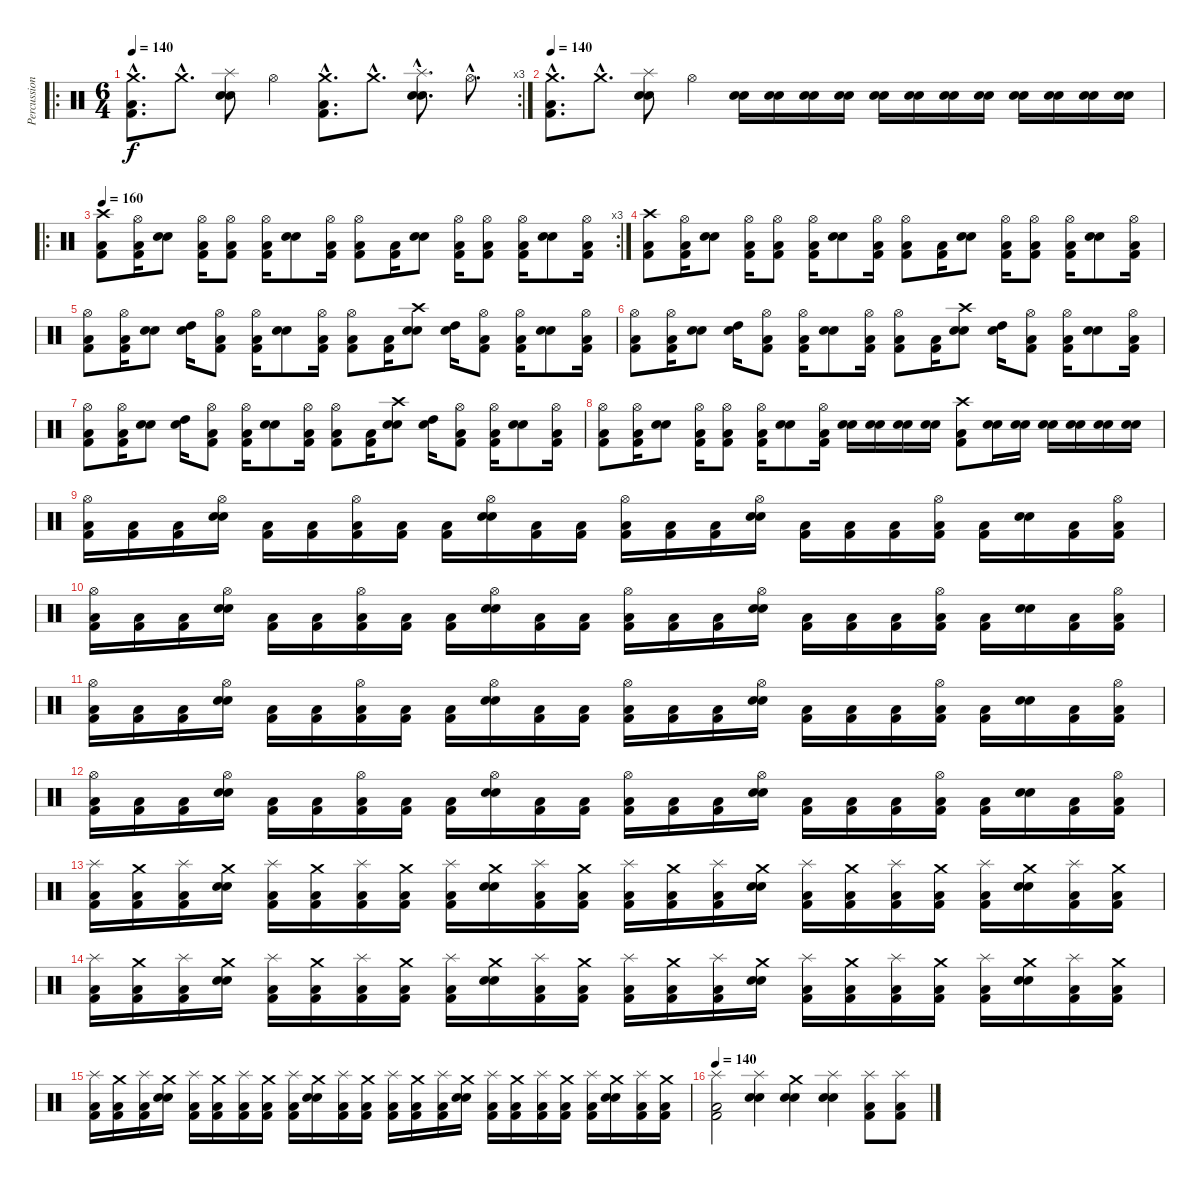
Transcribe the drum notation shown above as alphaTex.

\track ("Percussions" "Percussion") {instrument percussion}
\staff {score}
\articulation defaults
\ro
\rc 3
\ts (6 4)
\tempo 140
\clef neutral
\ks c
("Crash medium (hit)"{hac} "Kick (hit) 2"{hac} "Low Floor Tom (hit)"{hac}).8{d dy f} "Crash medium (hit)"{hac}.8{d} ("Splash (hit)" "Snare (hit) 2" "Electric Snare (hit)").8 "Hi-Hat (open)".4 ("Crash medium (hit)"{hac} "Kick (hit) 2"{hac} "Low Floor Tom (hit)"{hac}).8{d} "Crash medium (hit)"{hac}.8{d} ("Splash (hit)"{hac} "Snare (hit) 2"{hac} "Electric Snare (hit)"{hac}).8{d} "Hi-Hat (open)"{hac}.8{d} |
\tempo 140
("Crash medium (hit)"{hac} "Kick (hit) 2"{hac} "Low Floor Tom (hit)"{hac}).8{d} "Crash medium (hit)"{hac}.8{d} ("Splash (hit)" "Snare (hit) 2" "Electric Snare (hit)").8 "Hi-Hat (open)".4 ("Snare (hit) 2" "Snare (hit) 2").16 ("Snare (hit) 2" "Snare (hit) 2").16 ("Snare (hit) 2" "Snare (hit)").16 ("Snare (hit) 2" "Snare (hit) 2").16 ("Snare (hit) 2" "Snare (hit) 2").16 ("Snare (hit) 2" "Snare (hit) 2").16 ("Snare (hit) 2" "Snare (hit) 2").16 ("Snare (hit) 2" "Snare (hit) 2").16 ("Snare (hit) 2" "Snare (hit) 2").16 ("Snare (hit) 2" "Snare (hit) 2").16 ("Snare (hit) 2" "Snare (hit) 2").16 ("Snare (hit) 2" "Snare (hit) 2").16 |
\ro
\rc 3
\tempo 160
("Crash high (hit)" "Kick (hit) 2" "Low Floor Tom (hit)").8 ("Hi-Hat (open)" "Kick (hit) 2" "Low Floor Tom (hit)").16 ("Snare (hit) 2" "Electric Snare (hit)").8 ("Hi-Hat (open)" "Kick (hit) 2" "Low Floor Tom (hit)").16 ("Hi-Hat (open)" "Kick (hit) 2" "Low Floor Tom (hit)").8 ("Hi-Hat (open)" "Kick (hit) 2" "Low Floor Tom (hit)").16 ("Snare (hit) 2" "Electric Snare (hit)").8 ("Hi-Hat (open)" "Kick (hit) 2" "Low Floor Tom (hit)").16 ("Hi-Hat (open)" "Kick (hit) 2" "Low Floor Tom (hit)").8 ("Kick (hit) 2" "Low Floor Tom (hit)").16 ("Snare (hit) 2" "Electric Snare (hit)").8 ("Hi-Hat (open)" "Kick (hit) 2" "Low Floor Tom (hit)").16 ("Hi-Hat (open)" "Kick (hit) 2" "Low Floor Tom (hit)").8 ("Hi-Hat (open)" "Kick (hit) 2" "Low Floor Tom (hit)").16 ("Snare (hit) 2" "Electric Snare (hit)").8 ("Hi-Hat (open)" "Kick (hit) 2" "Low Floor Tom (hit)").16 |
("Crash high (hit)" "Kick (hit) 2" "Low Floor Tom (hit)").8 ("Hi-Hat (open)" "Kick (hit) 2" "Low Floor Tom (hit)").16 ("Snare (hit) 2" "Electric Snare (hit)").8 ("Hi-Hat (open)" "Kick (hit) 2" "Low Floor Tom (hit)").16 ("Hi-Hat (open)" "Kick (hit) 2" "Low Floor Tom (hit)").8 ("Hi-Hat (open)" "Kick (hit) 2" "Low Floor Tom (hit)").16 ("Snare (hit) 2" "Electric Snare (hit)").8 ("Hi-Hat (open)" "Kick (hit) 2" "Low Floor Tom (hit)").16 ("Hi-Hat (open)" "Kick (hit) 2" "Low Floor Tom (hit)").8 ("Kick (hit) 2" "Low Floor Tom (hit)").16 ("Snare (hit) 2" "Electric Snare (hit)").8 ("Hi-Hat (open)" "Kick (hit) 2" "Low Floor Tom (hit)").16 ("Hi-Hat (open)" "Kick (hit) 2" "Low Floor Tom (hit)").8 ("Hi-Hat (open)" "Kick (hit) 2" "Low Floor Tom (hit)").16 ("Snare (hit) 2" "Electric Snare (hit)").8 ("Hi-Hat (open)" "Kick (hit) 2" "Low Floor Tom (hit)").16 |
("Hi-Hat (open)" "Kick (hit) 2" "Low Floor Tom (hit)").8 ("Hi-Hat (open)" "Kick (hit) 2" "Low Floor Tom (hit)").16 ("Snare (hit) 2" "Electric Snare (hit)").8 ("High Tom (hit)" "Snare (hit) 2").16 ("Hi-Hat (open)" "Kick (hit) 2" "Low Floor Tom (hit)").8 ("Hi-Hat (open)" "Kick (hit) 2" "Low Floor Tom (hit)").16 ("Snare (hit) 2" "Electric Snare (hit)").8 ("Hi-Hat (open)" "Kick (hit) 2" "Low Floor Tom (hit)").16 ("Hi-Hat (open)" "Kick (hit) 2" "Low Floor Tom (hit)").8 ("Kick (hit) 2" "Low Floor Tom (hit)").16 ("Crash high (hit)" "Snare (hit) 2" "Electric Snare (hit)").8 ("High Tom (hit)" "Snare (hit) 2").16 ("Hi-Hat (open)" "Kick (hit) 2" "Low Floor Tom (hit)").8 ("Hi-Hat (open)" "Kick (hit) 2" "Low Floor Tom (hit)").16 ("Snare (hit) 2" "Electric Snare (hit)").8 ("Hi-Hat (open)" "Kick (hit) 2" "Low Floor Tom (hit)").16 |
("Hi-Hat (open)" "Kick (hit) 2" "Low Floor Tom (hit)").8 ("Hi-Hat (open)" "Kick (hit) 2" "Low Floor Tom (hit)").16 ("Snare (hit) 2" "Electric Snare (hit)").8 ("High Tom (hit)" "Snare (hit) 2").16 ("Hi-Hat (open)" "Kick (hit) 2" "Low Floor Tom (hit)").8 ("Hi-Hat (open)" "Kick (hit) 2" "Low Floor Tom (hit)").16 ("Snare (hit) 2" "Electric Snare (hit)").8 ("Hi-Hat (open)" "Kick (hit) 2" "Low Floor Tom (hit)").16 ("Hi-Hat (open)" "Kick (hit) 2" "Low Floor Tom (hit)").8 ("Kick (hit) 2" "Low Floor Tom (hit)").16 ("Crash high (hit)" "Snare (hit) 2" "Electric Snare (hit)").8 ("High Tom (hit)" "Snare (hit) 2").16 ("Hi-Hat (open)" "Kick (hit) 2" "Low Floor Tom (hit)").8 ("Hi-Hat (open)" "Kick (hit) 2" "Low Floor Tom (hit)").16 ("Snare (hit) 2" "Electric Snare (hit)").8 ("Hi-Hat (open)" "Kick (hit) 2" "Low Floor Tom (hit)").16 |
("Hi-Hat (open)" "Kick (hit) 2" "Low Floor Tom (hit)").8 ("Hi-Hat (open)" "Kick (hit) 2" "Low Floor Tom (hit)").16 ("Snare (hit) 2" "Electric Snare (hit)").8 ("High Tom (hit)" "Snare (hit) 2").16 ("Hi-Hat (open)" "Kick (hit) 2" "Low Floor Tom (hit)").8 ("Hi-Hat (open)" "Kick (hit) 2" "Low Floor Tom (hit)").16 ("Snare (hit) 2" "Electric Snare (hit)").8 ("Hi-Hat (open)" "Kick (hit) 2" "Low Floor Tom (hit)").16 ("Hi-Hat (open)" "Kick (hit) 2" "Low Floor Tom (hit)").8 ("Kick (hit) 2" "Low Floor Tom (hit)").16 ("Crash high (hit)" "Snare (hit) 2" "Electric Snare (hit)").8 ("High Tom (hit)" "Snare (hit) 2").16 ("Hi-Hat (open)" "Kick (hit) 2" "Low Floor Tom (hit)").8 ("Hi-Hat (open)" "Kick (hit) 2" "Low Floor Tom (hit)").16 ("Snare (hit) 2" "Electric Snare (hit)").8 ("Hi-Hat (open)" "Kick (hit) 2" "Low Floor Tom (hit)").16 |
("Hi-Hat (open)" "Kick (hit) 2" "Low Floor Tom (hit)").8 ("Hi-Hat (open)" "Kick (hit) 2" "Low Floor Tom (hit)").16 ("Snare (hit) 2" "Electric Snare (hit)").8 ("Hi-Hat (open)" "Kick (hit) 2" "Low Floor Tom (hit)").16 ("Hi-Hat (open)" "Kick (hit) 2" "Low Floor Tom (hit)").8 ("Hi-Hat (open)" "Kick (hit) 2" "Low Floor Tom (hit)").16 ("Snare (hit) 2" "Electric Snare (hit)").8 ("Hi-Hat (open)" "Kick (hit) 2" "Low Floor Tom (hit)").16 ("Snare (hit) 2" "Electric Snare (hit)").16 ("Snare (hit) 2" "Electric Snare (hit)").16 ("Snare (hit) 2" "Electric Snare (hit)").16 ("Snare (hit) 2" "Electric Snare (hit)").16 ("Crash high (hit)" "Kick (hit) 2" "Low Floor Tom (hit)").8 ("Snare (hit) 2" "Snare (hit) 2").16 ("Snare (hit) 2" "Snare (hit) 2").16 ("Snare (hit) 2" "Snare (hit) 2").16 ("Snare (hit) 2" "Snare (hit) 2").16 ("Snare (hit) 2" "Snare (hit) 2").16 ("Snare (hit) 2" "Snare (hit) 2").16 |
("Hi-Hat (open)" "Kick (hit) 2" "Low Floor Tom (hit)").16 ("Kick (hit) 2" "Low Floor Tom (hit)").16 ("Kick (hit) 2" "Low Floor Tom (hit)").16 ("Hi-Hat (open)" "Snare (hit) 2" "Electric Snare (hit)").16 ("Kick (hit) 2" "Low Floor Tom (hit)").16 ("Kick (hit) 2" "Low Floor Tom (hit)").16 ("Hi-Hat (open)" "Kick (hit) 2" "Low Floor Tom (hit)").16 ("Kick (hit) 2" "Low Floor Tom (hit)").16 ("Kick (hit) 2" "Low Floor Tom (hit)").16 ("Hi-Hat (open)" "Snare (hit) 2" "Electric Snare (hit)").16 ("Kick (hit) 2" "Low Floor Tom (hit)").16 ("Kick (hit) 2" "Low Floor Tom (hit)").16 ("Hi-Hat (open)" "Kick (hit) 2" "Low Floor Tom (hit)").16 ("Kick (hit) 2" "Low Floor Tom (hit)").16 ("Kick (hit) 2" "Low Floor Tom (hit)").16 ("Hi-Hat (open)" "Snare (hit) 2" "Electric Snare (hit)").16 ("Kick (hit) 2" "Low Floor Tom (hit)").16 ("Kick (hit) 2" "Low Floor Tom (hit)").16 ("Kick (hit) 2" "Low Floor Tom (hit)").16 ("Hi-Hat (open)" "Kick (hit) 2" "Low Floor Tom (hit)").16 ("Kick (hit) 2" "Low Floor Tom (hit)").16 ("Snare (hit) 2" "Electric Snare (hit)").16 ("Kick (hit) 2" "Low Floor Tom (hit)").16 ("Hi-Hat (open)" "Kick (hit) 2" "Low Floor Tom (hit)").16 |
("Hi-Hat (open)" "Kick (hit) 2" "Low Floor Tom (hit)").16 ("Kick (hit) 2" "Low Floor Tom (hit)").16 ("Kick (hit) 2" "Low Floor Tom (hit)").16 ("Hi-Hat (open)" "Snare (hit) 2" "Electric Snare (hit)").16 ("Kick (hit) 2" "Low Floor Tom (hit)").16 ("Kick (hit) 2" "Low Floor Tom (hit)").16 ("Hi-Hat (open)" "Kick (hit) 2" "Low Floor Tom (hit)").16 ("Kick (hit) 2" "Low Floor Tom (hit)").16 ("Kick (hit) 2" "Low Floor Tom (hit)").16 ("Hi-Hat (open)" "Snare (hit) 2" "Electric Snare (hit)").16 ("Kick (hit) 2" "Low Floor Tom (hit)").16 ("Kick (hit) 2" "Low Floor Tom (hit)").16 ("Hi-Hat (open)" "Kick (hit) 2" "Low Floor Tom (hit)").16 ("Kick (hit) 2" "Low Floor Tom (hit)").16 ("Kick (hit) 2" "Low Floor Tom (hit)").16 ("Hi-Hat (open)" "Snare (hit) 2" "Electric Snare (hit)").16 ("Kick (hit) 2" "Low Floor Tom (hit)").16 ("Kick (hit) 2" "Low Floor Tom (hit)").16 ("Kick (hit) 2" "Low Floor Tom (hit)").16 ("Hi-Hat (open)" "Kick (hit) 2" "Low Floor Tom (hit)").16 ("Kick (hit) 2" "Low Floor Tom (hit)").16 ("Snare (hit) 2" "Electric Snare (hit)").16 ("Kick (hit) 2" "Low Floor Tom (hit)").16 ("Hi-Hat (open)" "Kick (hit) 2" "Low Floor Tom (hit)").16 |
("Hi-Hat (open)" "Kick (hit) 2" "Low Floor Tom (hit)").16 ("Kick (hit) 2" "Low Floor Tom (hit)").16 ("Kick (hit) 2" "Low Floor Tom (hit)").16 ("Hi-Hat (open)" "Snare (hit) 2" "Electric Snare (hit)").16 ("Kick (hit) 2" "Low Floor Tom (hit)").16 ("Kick (hit) 2" "Low Floor Tom (hit)").16 ("Hi-Hat (open)" "Kick (hit) 2" "Low Floor Tom (hit)").16 ("Kick (hit) 2" "Low Floor Tom (hit)").16 ("Kick (hit) 2" "Low Floor Tom (hit)").16 ("Hi-Hat (open)" "Snare (hit) 2" "Electric Snare (hit)").16 ("Kick (hit) 2" "Low Floor Tom (hit)").16 ("Kick (hit) 2" "Low Floor Tom (hit)").16 ("Hi-Hat (open)" "Kick (hit) 2" "Low Floor Tom (hit)").16 ("Kick (hit) 2" "Low Floor Tom (hit)").16 ("Kick (hit) 2" "Low Floor Tom (hit)").16 ("Hi-Hat (open)" "Snare (hit) 2" "Electric Snare (hit)").16 ("Kick (hit) 2" "Low Floor Tom (hit)").16 ("Kick (hit) 2" "Low Floor Tom (hit)").16 ("Kick (hit) 2" "Low Floor Tom (hit)").16 ("Hi-Hat (open)" "Kick (hit) 2" "Low Floor Tom (hit)").16 ("Kick (hit) 2" "Low Floor Tom (hit)").16 ("Snare (hit) 2" "Electric Snare (hit)").16 ("Kick (hit) 2" "Low Floor Tom (hit)").16 ("Hi-Hat (open)" "Kick (hit) 2" "Low Floor Tom (hit)").16 |
("Hi-Hat (open)" "Kick (hit) 2" "Low Floor Tom (hit)").16 ("Kick (hit) 2" "Low Floor Tom (hit)").16 ("Kick (hit) 2" "Low Floor Tom (hit)").16 ("Hi-Hat (open)" "Snare (hit) 2" "Electric Snare (hit)").16 ("Kick (hit) 2" "Low Floor Tom (hit)").16 ("Kick (hit) 2" "Low Floor Tom (hit)").16 ("Hi-Hat (open)" "Kick (hit) 2" "Low Floor Tom (hit)").16 ("Kick (hit) 2" "Low Floor Tom (hit)").16 ("Kick (hit) 2" "Low Floor Tom (hit)").16 ("Hi-Hat (open)" "Snare (hit) 2" "Electric Snare (hit)").16 ("Kick (hit) 2" "Low Floor Tom (hit)").16 ("Kick (hit) 2" "Low Floor Tom (hit)").16 ("Hi-Hat (open)" "Kick (hit) 2" "Low Floor Tom (hit)").16 ("Kick (hit) 2" "Low Floor Tom (hit)").16 ("Kick (hit) 2" "Low Floor Tom (hit)").16 ("Hi-Hat (open)" "Snare (hit) 2" "Electric Snare (hit)").16 ("Kick (hit) 2" "Low Floor Tom (hit)").16 ("Kick (hit) 2" "Low Floor Tom (hit)").16 ("Kick (hit) 2" "Low Floor Tom (hit)").16 ("Hi-Hat (open)" "Kick (hit) 2" "Low Floor Tom (hit)").16 ("Kick (hit) 2" "Low Floor Tom (hit)").16 ("Snare (hit) 2" "Electric Snare (hit)").16 ("Kick (hit) 2" "Low Floor Tom (hit)").16 ("Hi-Hat (open)" "Kick (hit) 2" "Low Floor Tom (hit)").16 |
("Splash (hit)" "Kick (hit) 2" "Low Floor Tom (hit)").16 ("Crash medium (hit)" "Kick (hit) 2" "Low Floor Tom (hit)").16 ("Splash (hit)" "Kick (hit) 2" "Low Floor Tom (hit)").16 ("Crash medium (hit)" "Snare (hit) 2" "Electric Snare (hit)").16 ("Splash (hit)" "Kick (hit) 2" "Low Floor Tom (hit)").16 ("Crash medium (hit)" "Kick (hit) 2" "Low Floor Tom (hit)").16 ("Splash (hit)" "Kick (hit) 2" "Low Floor Tom (hit)").16 ("Crash medium (hit)" "Kick (hit) 2" "Low Floor Tom (hit)").16 ("Splash (hit)" "Kick (hit) 2" "Low Floor Tom (hit)").16 ("Crash medium (hit)" "Snare (hit) 2" "Electric Snare (hit)").16 ("Splash (hit)" "Kick (hit) 2" "Low Floor Tom (hit)").16 ("Crash medium (hit)" "Kick (hit) 2" "Low Floor Tom (hit)").16 ("Splash (hit)" "Kick (hit) 2" "Low Floor Tom (hit)").16 ("Crash medium (hit)" "Kick (hit) 2" "Low Floor Tom (hit)").16 ("Splash (hit)" "Kick (hit) 2" "Low Floor Tom (hit)").16 ("Crash medium (hit)" "Snare (hit) 2" "Electric Snare (hit)").16 ("Splash (hit)" "Kick (hit) 2" "Low Floor Tom (hit)").16 ("Crash medium (hit)" "Kick (hit) 2" "Low Floor Tom (hit)").16 ("Splash (hit)" "Kick (hit) 2" "Low Floor Tom (hit)").16 ("Crash medium (hit)" "Kick (hit) 2" "Low Floor Tom (hit)").16 ("Splash (hit)" "Kick (hit) 2" "Low Floor Tom (hit)").16 ("Crash medium (hit)" "Snare (hit) 2" "Electric Snare (hit)").16 ("Splash (hit)" "Kick (hit) 2" "Low Floor Tom (hit)").16 ("Crash medium (hit)" "Kick (hit) 2" "Low Floor Tom (hit)").16 |
("Splash (hit)" "Kick (hit) 2" "Low Floor Tom (hit)").16 ("Crash medium (hit)" "Kick (hit) 2" "Low Floor Tom (hit)").16 ("Splash (hit)" "Kick (hit) 2" "Low Floor Tom (hit)").16 ("Crash medium (hit)" "Snare (hit) 2" "Electric Snare (hit)").16 ("Splash (hit)" "Kick (hit) 2" "Low Floor Tom (hit)").16 ("Crash medium (hit)" "Kick (hit) 2" "Low Floor Tom (hit)").16 ("Splash (hit)" "Kick (hit) 2" "Low Floor Tom (hit)").16 ("Crash medium (hit)" "Kick (hit) 2" "Low Floor Tom (hit)").16 ("Splash (hit)" "Kick (hit) 2" "Low Floor Tom (hit)").16 ("Crash medium (hit)" "Snare (hit) 2" "Electric Snare (hit)").16 ("Splash (hit)" "Kick (hit) 2" "Low Floor Tom (hit)").16 ("Crash medium (hit)" "Kick (hit) 2" "Low Floor Tom (hit)").16 ("Splash (hit)" "Kick (hit) 2" "Low Floor Tom (hit)").16 ("Crash medium (hit)" "Kick (hit) 2" "Low Floor Tom (hit)").16 ("Splash (hit)" "Kick (hit) 2" "Low Floor Tom (hit)").16 ("Crash medium (hit)" "Snare (hit) 2" "Electric Snare (hit)").16 ("Splash (hit)" "Kick (hit) 2" "Low Floor Tom (hit)").16 ("Crash medium (hit)" "Kick (hit) 2" "Low Floor Tom (hit)").16 ("Splash (hit)" "Kick (hit) 2" "Low Floor Tom (hit)").16 ("Crash medium (hit)" "Kick (hit) 2" "Low Floor Tom (hit)").16 ("Splash (hit)" "Kick (hit) 2" "Low Floor Tom (hit)").16 ("Crash medium (hit)" "Snare (hit) 2" "Electric Snare (hit)").16 ("Splash (hit)" "Kick (hit) 2" "Low Floor Tom (hit)").16 ("Crash medium (hit)" "Kick (hit) 2" "Low Floor Tom (hit)").16 |
("Splash (hit)" "Kick (hit) 2" "Low Floor Tom (hit)").16 ("Crash medium (hit)" "Kick (hit) 2" "Low Floor Tom (hit)").16 ("Splash (hit)" "Kick (hit) 2" "Low Floor Tom (hit)").16 ("Crash medium (hit)" "Snare (hit) 2" "Electric Snare (hit)").16 ("Splash (hit)" "Kick (hit) 2" "Low Floor Tom (hit)").16 ("Crash medium (hit)" "Kick (hit) 2" "Low Floor Tom (hit)").16 ("Splash (hit)" "Kick (hit) 2" "Low Floor Tom (hit)").16 ("Crash medium (hit)" "Kick (hit) 2" "Low Floor Tom (hit)").16 ("Splash (hit)" "Kick (hit) 2" "Low Floor Tom (hit)").16 ("Crash medium (hit)" "Snare (hit) 2" "Electric Snare (hit)").16 ("Splash (hit)" "Kick (hit) 2" "Low Floor Tom (hit)").16 ("Crash medium (hit)" "Kick (hit) 2" "Low Floor Tom (hit)").16 ("Splash (hit)" "Kick (hit) 2" "Low Floor Tom (hit)").16 ("Crash medium (hit)" "Kick (hit) 2" "Low Floor Tom (hit)").16 ("Splash (hit)" "Kick (hit) 2" "Low Floor Tom (hit)").16 ("Crash medium (hit)" "Snare (hit) 2" "Electric Snare (hit)").16 ("Splash (hit)" "Kick (hit) 2" "Low Floor Tom (hit)").16 ("Crash medium (hit)" "Kick (hit) 2" "Low Floor Tom (hit)").16 ("Splash (hit)" "Kick (hit) 2" "Low Floor Tom (hit)").16 ("Crash medium (hit)" "Kick (hit) 2" "Low Floor Tom (hit)").16 ("Splash (hit)" "Kick (hit) 2" "Low Floor Tom (hit)").16 ("Crash medium (hit)" "Snare (hit) 2" "Electric Snare (hit)").16 ("Splash (hit)" "Kick (hit) 2" "Low Floor Tom (hit)").16 ("Crash medium (hit)" "Kick (hit) 2" "Low Floor Tom (hit)").16 |
\tempo 140
("Splash (hit)" "Kick (hit) 2" "Low Floor Tom (hit)").2 ("Splash (hit)" "Snare (hit) 2" "Electric Snare (hit)").4 ("Crash medium (hit)" "Snare (hit) 2" "Electric Snare (hit)").4 ("Splash (hit)" "Snare (hit) 2" "Electric Snare (hit)").4 ("Splash (hit)" "Kick (hit) 2" "Low Floor Tom (hit)").8 ("Splash (hit)" "Kick (hit) 2" "Low Floor Tom (hit)").8
